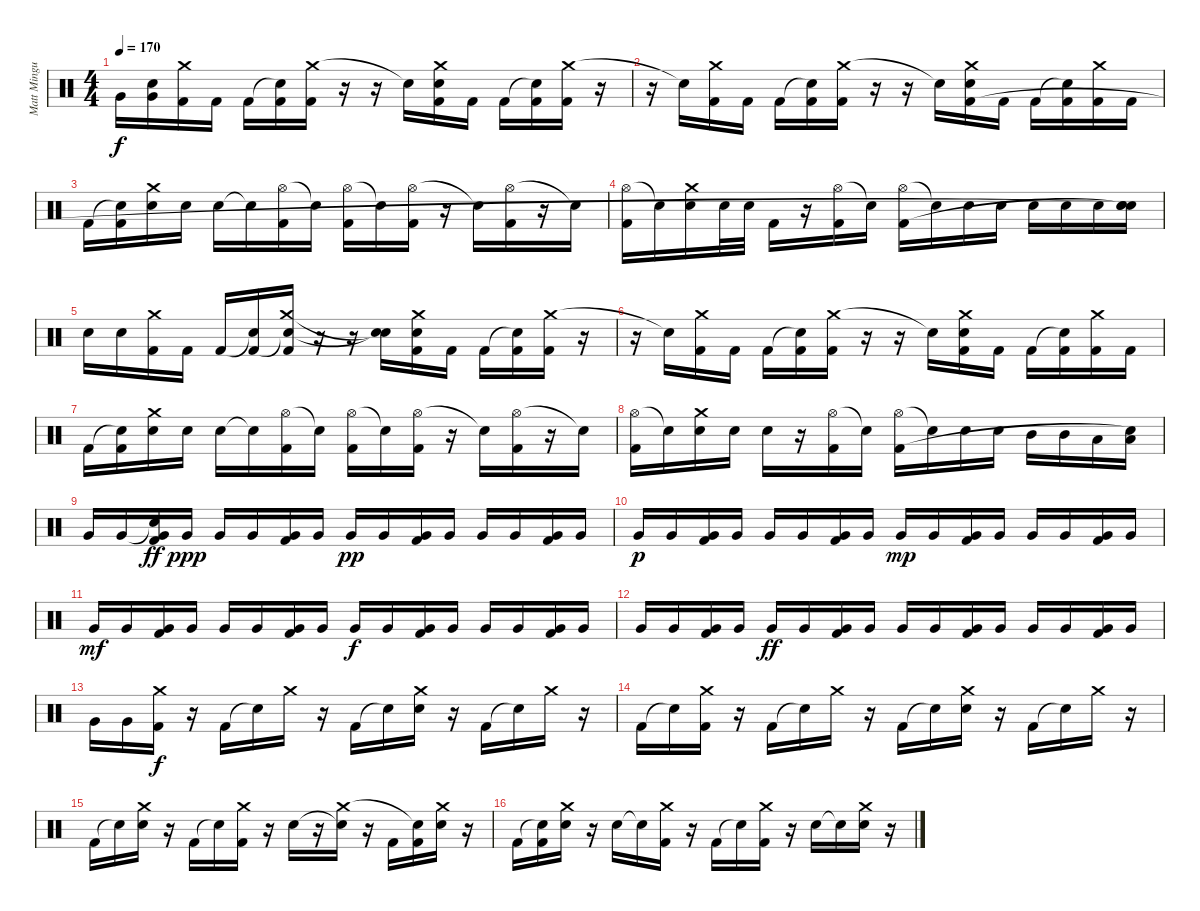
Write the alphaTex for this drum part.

\track ("Matt Mingus" "Matt Mingu") {instrument percussion}
\staff {score}
\articulation defaults
\ts (4 4)
\tempo 170
\clef neutral
\ks c "Very Low Tom (hit)".16{dy f}
("Very Low Tom (hit)" "Snare (hit)"{t}).16 ("Crash medium (hit)" "Kick (hit) 2").16 "Kick (hit) 2".16 "Kick (hit) 2".16 ("Snare (hit)"{t} "Kick (hit) 2").16 ("Crash medium (hit)" "Kick (hit) 2").16 r.16 r.16 "Snare (hit)"{t}.16 ("Crash medium (hit)" "Electric Snare (hit)" "Kick (hit) 2").16 "Kick (hit) 2".16 "Kick (hit) 2".16 ("Snare (hit)"{t} "Kick (hit) 2").16 ("Crash medium (hit)" "Kick (hit) 2").16 r.16 |
r.16 "Snare (hit)"{t}.16 ("Crash medium (hit)" "Kick (hit) 2").16 "Kick (hit) 2".16 "Kick (hit) 2".16 ("Snare (hit)"{t} "Kick (hit) 2").16 ("Crash medium (hit)" "Kick (hit) 2").16 r.16 r.16 "Snare (hit)"{t}.16 ("Crash medium (hit)" "Electric Snare (hit)" "Kick (hit) 2").16 "Kick (hit) 2".16 "Kick (hit) 2".16 ("Snare (hit)"{t} "Kick (hit) 2").16 ("Crash medium (hit)" "Kick (hit) 2").16 "Kick (hit) 2".16 |
"Kick (hit) 2".16 ("Snare (hit)"{t} "Kick (hit) 2").16 ("Crash medium (hit)" "Electric Snare (hit)").16 "Electric Snare (hit)".16 "Electric Snare (hit)".16 "Snare (hit)"{t}.16 ("Hi-Hat (open)" "Kick (hit) 2").16 "Snare (hit)"{t}.16 ("Hi-Hat (open)" "Kick (hit) 2").16 "Snare (hit)"{t}.16 ("Hi-Hat (open)" "Kick (hit) 2").16 r.16 "Snare (hit)"{t}.16 ("Hi-Hat (open)" "Kick (hit) 2").16 r.16 "Snare (hit)"{t}.16 |
("Hi-Hat (open)" "Kick (hit) 2").16 "Snare (hit)"{t}.16 ("Electric Snare (hit)" "Crash medium (hit)").16 "Electric Snare (hit)".32 "Electric Snare (hit)".32 "Kick (hit) 2".16 r.16 ("Hi-Hat (open)" "Kick (hit) 2").16 "Snare (hit)"{t}.16 ("Hi-Hat (open)" "Kick (hit) 2").16 "Snare (hit)"{t}.16 "Electric Snare (hit)".16 "Electric Snare (hit)".16 "Electric Snare (hit)".16 "Electric Snare (hit)".16 "Electric Snare (hit)".16 ("Electric Snare (hit)" "Snare (hit)"{t} "Snare (hit)"{t}).16 |
"Electric Snare (hit)".16 "Electric Snare (hit)".16 ("Crash medium (hit)" "Kick (hit) 2").16 "Kick (hit) 2".16 "Kick (hit) 2".16 ("Snare (hit)"{t} "Kick (hit) 2").16 ("Crash medium (hit)" "Snare (hit)"{t} "Kick (hit) 2").16 r.16 r.16 ("Snare (hit)"{t} "Snare (hit)"{t}).16 ("Crash medium (hit)" "Electric Snare (hit)" "Kick (hit) 2").16 "Kick (hit) 2".16 "Kick (hit) 2".16 ("Snare (hit)"{t} "Kick (hit) 2").16 ("Crash medium (hit)" "Kick (hit) 2").16 r.16 |
r.16 "Snare (hit)"{t}.16 ("Crash medium (hit)" "Kick (hit) 2").16 "Kick (hit) 2".16 "Kick (hit) 2".16 ("Snare (hit)"{t} "Kick (hit) 2").16 ("Crash medium (hit)" "Kick (hit) 2").16 r.16 r.16 "Snare (hit)"{t}.16 ("Crash medium (hit)" "Electric Snare (hit)" "Kick (hit) 2").16 "Kick (hit) 2".16 "Kick (hit) 2".16 ("Snare (hit)"{t} "Kick (hit) 2").16 ("Crash medium (hit)" "Kick (hit) 2").16 "Kick (hit) 2".16 |
"Kick (hit) 2".16 ("Snare (hit)"{t} "Kick (hit) 2").16 ("Crash medium (hit)" "Electric Snare (hit)").16 "Electric Snare (hit)".16 "Electric Snare (hit)".16 "Snare (hit)"{t}.16 ("Hi-Hat (open)" "Kick (hit) 2").16 "Snare (hit)"{t}.16 ("Hi-Hat (open)" "Kick (hit) 2").16 "Snare (hit)"{t}.16 ("Hi-Hat (open)" "Kick (hit) 2").16 r.16 "Snare (hit)"{t}.16 ("Hi-Hat (open)" "Kick (hit) 2").16 r.16 "Snare (hit)"{t}.16 |
("Hi-Hat (open)" "Kick (hit) 2").16 "Snare (hit)"{t}.16 ("Electric Snare (hit)" "Crash medium (hit)").16 "Electric Snare (hit)".16 "Electric Snare (hit)".16 r.16 ("Hi-Hat (open)" "Kick (hit) 2").16 "Snare (hit)"{t}.16 ("Hi-Hat (open)" "Kick (hit) 2").16 "Snare (hit)"{t}.16 "Electric Snare (hit)".16 "Electric Snare (hit)".16 "Mid Tom (hit)".16 "Mid Tom (hit)".16 "Low Tom (hit)".16 ("Low Tom (hit)" "Snare (hit)"{t}).16 |
"Very Low Tom (hit)".16 "Very Low Tom (hit)".16 ("Snare (hit)"{t} "Very Low Tom (hit)" "Kick (hit) 2").16{dy ff} "Very Low Tom (hit)".16{dy ppp} "Very Low Tom (hit)".16 "Very Low Tom (hit)".16 ("Very Low Tom (hit)" "Kick (hit) 2").16 "Very Low Tom (hit)".16 "Very Low Tom (hit)".16{dy pp} "Very Low Tom (hit)".16 ("Very Low Tom (hit)" "Kick (hit) 2").16 "Very Low Tom (hit)".16 "Very Low Tom (hit)".16 "Very Low Tom (hit)".16 ("Very Low Tom (hit)" "Kick (hit) 2").16 "Very Low Tom (hit)".16 |
"Very Low Tom (hit)".16{dy p} "Very Low Tom (hit)".16 ("Very Low Tom (hit)" "Kick (hit) 2").16 "Very Low Tom (hit)".16 "Very Low Tom (hit)".16 "Very Low Tom (hit)".16 ("Very Low Tom (hit)" "Kick (hit) 2").16 "Very Low Tom (hit)".16 "Very Low Tom (hit)".16{dy mp} "Very Low Tom (hit)".16 ("Very Low Tom (hit)" "Kick (hit) 2").16 "Very Low Tom (hit)".16 "Very Low Tom (hit)".16 "Very Low Tom (hit)".16 ("Very Low Tom (hit)" "Kick (hit) 2").16 "Very Low Tom (hit)".16 |
"Very Low Tom (hit)".16{dy mf} "Very Low Tom (hit)".16 ("Very Low Tom (hit)" "Kick (hit) 2").16 "Very Low Tom (hit)".16 "Very Low Tom (hit)".16 "Very Low Tom (hit)".16 ("Very Low Tom (hit)" "Kick (hit) 2").16 "Very Low Tom (hit)".16 "Very Low Tom (hit)".16{dy f} "Very Low Tom (hit)".16 ("Very Low Tom (hit)" "Kick (hit) 2").16 "Very Low Tom (hit)".16 "Very Low Tom (hit)".16 "Very Low Tom (hit)".16 ("Very Low Tom (hit)" "Kick (hit) 2").16 "Very Low Tom (hit)".16 |
"Very Low Tom (hit)".16 "Very Low Tom (hit)".16 ("Very Low Tom (hit)" "Kick (hit) 2").16 "Very Low Tom (hit)".16 "Very Low Tom (hit)".16{dy ff} "Very Low Tom (hit)".16 ("Very Low Tom (hit)" "Kick (hit) 2").16 "Very Low Tom (hit)".16 "Very Low Tom (hit)".16 "Very Low Tom (hit)".16 ("Very Low Tom (hit)" "Kick (hit) 2").16 "Very Low Tom (hit)".16 "Very Low Tom (hit)".16 "Very Low Tom (hit)".16 ("Very Low Tom (hit)" "Kick (hit) 2").16 "Very Low Tom (hit)".16 |
"Very Low Tom (hit)".16 "Very Low Tom (hit)".16 ("Crash medium (hit)" "Kick (hit) 2").16{dy f} r.16 "Kick (hit) 2".16 "Snare (hit)"{t}.16 "Crash medium (hit)".16 r.16 "Kick (hit) 2".16 "Snare (hit)"{t}.16 ("Crash medium (hit)" "Electric Snare (hit)").16 r.16 "Kick (hit) 2".16 "Snare (hit)"{t}.16 "Crash medium (hit)".16 r.16 |
"Kick (hit) 2".16 "Snare (hit)"{t}.16 ("Crash medium (hit)" "Kick (hit) 2").16 r.16 "Kick (hit) 2".16 "Snare (hit)"{t}.16 "Crash medium (hit)".16 r.16 "Kick (hit) 2".16 "Snare (hit)"{t}.16 ("Crash medium (hit)" "Electric Snare (hit)").16 r.16 "Kick (hit) 2".16 "Snare (hit)"{t}.16 "Crash medium (hit)".16 r.16 |
"Kick (hit) 2".16 "Snare (hit)"{t}.16 ("Electric Snare (hit)" "Crash medium (hit)").16 r.16 "Kick (hit) 2".16 "Snare (hit)"{t}.16 ("Crash medium (hit)" "Kick (hit) 2").16 r.16 "Electric Snare (hit)".16 r.16 ("Snare (hit)"{t} "Crash medium (hit)").16 r.16 "Kick (hit) 2".16 ("Kick (hit) 2" "Snare (hit)"{t}).16 ("Electric Snare (hit)" "Crash medium (hit)").16 r.16 |
"Kick (hit) 2".16 ("Snare (hit)"{t} "Kick (hit) 2").16 ("Crash medium (hit)" "Electric Snare (hit)").16 r.16 "Electric Snare (hit)".16 "Snare (hit)"{t}.16 ("Crash medium (hit)" "Kick (hit) 2").16 r.16 "Kick (hit) 2".16 "Snare (hit)"{t}.16 ("Crash medium (hit)" "Kick (hit) 2").16 r.16 "Electric Snare (hit)".16 "Snare (hit)"{t}.16 ("Electric Snare (hit)" "Crash medium (hit)").16 r.16
